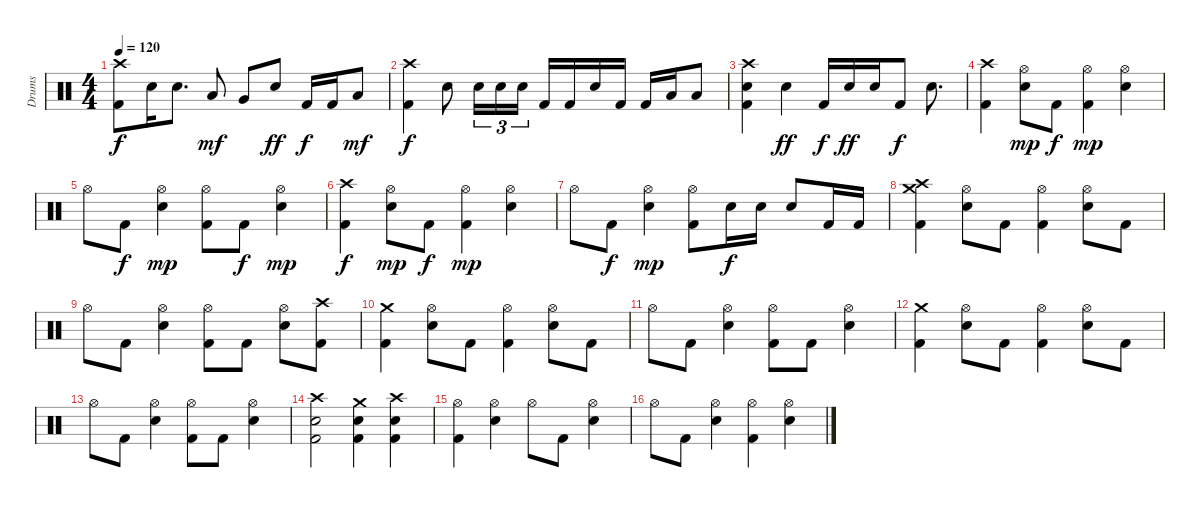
\track ("Drums" "Drums") {instrument percussion}
\staff {score}
\articulation defaults
\ts (4 4)
\tempo 120
\clef neutral
\ks c
("Crash high (hit)" "Kick (hit) 2").8{dy f} "Electric Snare (hit)".16 "Electric Snare (hit)".8{d} "Low Tom (hit)".8{dy mf} "Very Low Tom (hit)".8 "Electric Snare (hit)".8{dy ff} "Kick (hit) 2".16{dy f} "Kick (hit) 2".16 "Low Tom (hit)".8{dy mf} |
("Crash high (hit)" "Kick (hit) 2").4{dy f} "Electric Snare (hit)".8 "Electric Snare (hit)".16{tu (3 2)} "Electric Snare (hit)".16{tu (3 2)} "Electric Snare (hit)".16{tu (3 2)} "Kick (hit) 2".16 "Kick (hit) 2".16 "Electric Snare (hit)".16 "Kick (hit) 2".16 "Kick (hit) 2".16 "Low Tom (hit)".16 "Low Floor Tom (hit)".8 |
("Crash high (hit)" "Electric Snare (hit)" "Kick (hit) 2").4 "Electric Snare (hit)".4{dy ff} "Kick (hit) 2".16{dy f} "Electric Snare (hit)".16{dy ff} "Electric Snare (hit)".16 "Kick (hit) 2".8{dy f} "Electric Snare (hit)".8{d} |
("Crash high (hit)" "Kick (hit) 2").4 ("Hi-Hat (open)" "Snare (hit) 2").8{dy mp} "Kick (hit) 2".8{dy f} ("Hi-Hat (open)" "Kick (hit) 2").4{dy mp} ("Hi-Hat (open)" "Snare (hit) 2").4 |
"Hi-Hat (open)".8 "Kick (hit) 2".8{dy f} ("Hi-Hat (open)" "Snare (hit) 2").4{dy mp} ("Hi-Hat (open)" "Kick (hit) 2").8 "Kick (hit) 2".8{dy f} ("Hi-Hat (open)" "Snare (hit) 2").4{dy mp} |
("Crash high (hit)" "Kick (hit) 2").4{dy f} ("Hi-Hat (open)" "Snare (hit) 2").8{dy mp} "Kick (hit) 2".8{dy f} ("Hi-Hat (open)" "Kick (hit) 2").4{dy mp} ("Hi-Hat (open)" "Snare (hit) 2").4 |
"Hi-Hat (open)".8 "Kick (hit) 2".8{dy f} ("Hi-Hat (open)" "Snare (hit) 2").4{dy mp} ("Hi-Hat (open)" "Kick (hit) 2").8 "Snare (hit) 2".16{dy f} "Snare (hit) 2".16 "Snare (hit) 2".8 "Kick (hit) 2".16 "Kick (hit) 2".16 |
("Crash high (hit)" "Crash medium (hit)" "Kick (hit) 2").4{volume 11} ("Hi-Hat (open)" "Electric Snare (hit)").8 "Kick (hit) 2".8 ("Hi-Hat (open)" "Kick (hit) 2").4 ("Hi-Hat (open)" "Electric Snare (hit)").8 "Kick (hit) 2".8 |
"Hi-Hat (open)".8 "Kick (hit) 2".8 ("Hi-Hat (open)" "Electric Snare (hit)").4 ("Hi-Hat (open)" "Kick (hit) 2").8 "Kick (hit) 2".8 ("Hi-Hat (open)" "Electric Snare (hit)").8 ("Crash high (hit)" "Kick (hit) 2").8 |
("Crash medium (hit)" "Kick (hit) 2").4 ("Hi-Hat (open)" "Electric Snare (hit)").8 "Kick (hit) 2".8 ("Hi-Hat (open)" "Kick (hit) 2").4 ("Hi-Hat (open)" "Electric Snare (hit)").8 "Kick (hit) 2".8 |
"Hi-Hat (open)".8 "Kick (hit) 2".8 ("Hi-Hat (open)" "Electric Snare (hit)").4 ("Hi-Hat (open)" "Kick (hit) 2").8 "Kick (hit) 2".8 ("Hi-Hat (open)" "Electric Snare (hit)").4 |
("Crash medium (hit)" "Kick (hit) 2").4 ("Hi-Hat (open)" "Electric Snare (hit)").8 "Kick (hit) 2".8 ("Hi-Hat (open)" "Kick (hit) 2").4 ("Hi-Hat (open)" "Electric Snare (hit)").8 "Kick (hit) 2".8 |
"Hi-Hat (open)".8 "Kick (hit) 2".8 ("Hi-Hat (open)" "Electric Snare (hit)").4 ("Hi-Hat (open)" "Kick (hit) 2").8 "Kick (hit) 2".8 ("Hi-Hat (open)" "Electric Snare (hit)").4 |
("Crash high (hit)" "Electric Snare (hit)" "Kick (hit) 2").2 ("Crash medium (hit)" "Snare (hit) 2" "Kick (hit) 2").4 ("Crash high (hit)" "Snare (hit) 2" "Kick (hit) 2").4 |
("Hi-Hat (open)" "Kick (hit) 2").4 ("Hi-Hat (open)" "Electric Snare (hit)").4 "Hi-Hat (open)".8 "Kick (hit) 2".8 ("Hi-Hat (open)" "Electric Snare (hit)").4 |
"Hi-Hat (open)".8 "Kick (hit) 2".8 ("Hi-Hat (open)" "Electric Snare (hit)").4 ("Hi-Hat (open)" "Kick (hit) 2").4 ("Hi-Hat (open)" "Electric Snare (hit)").4
